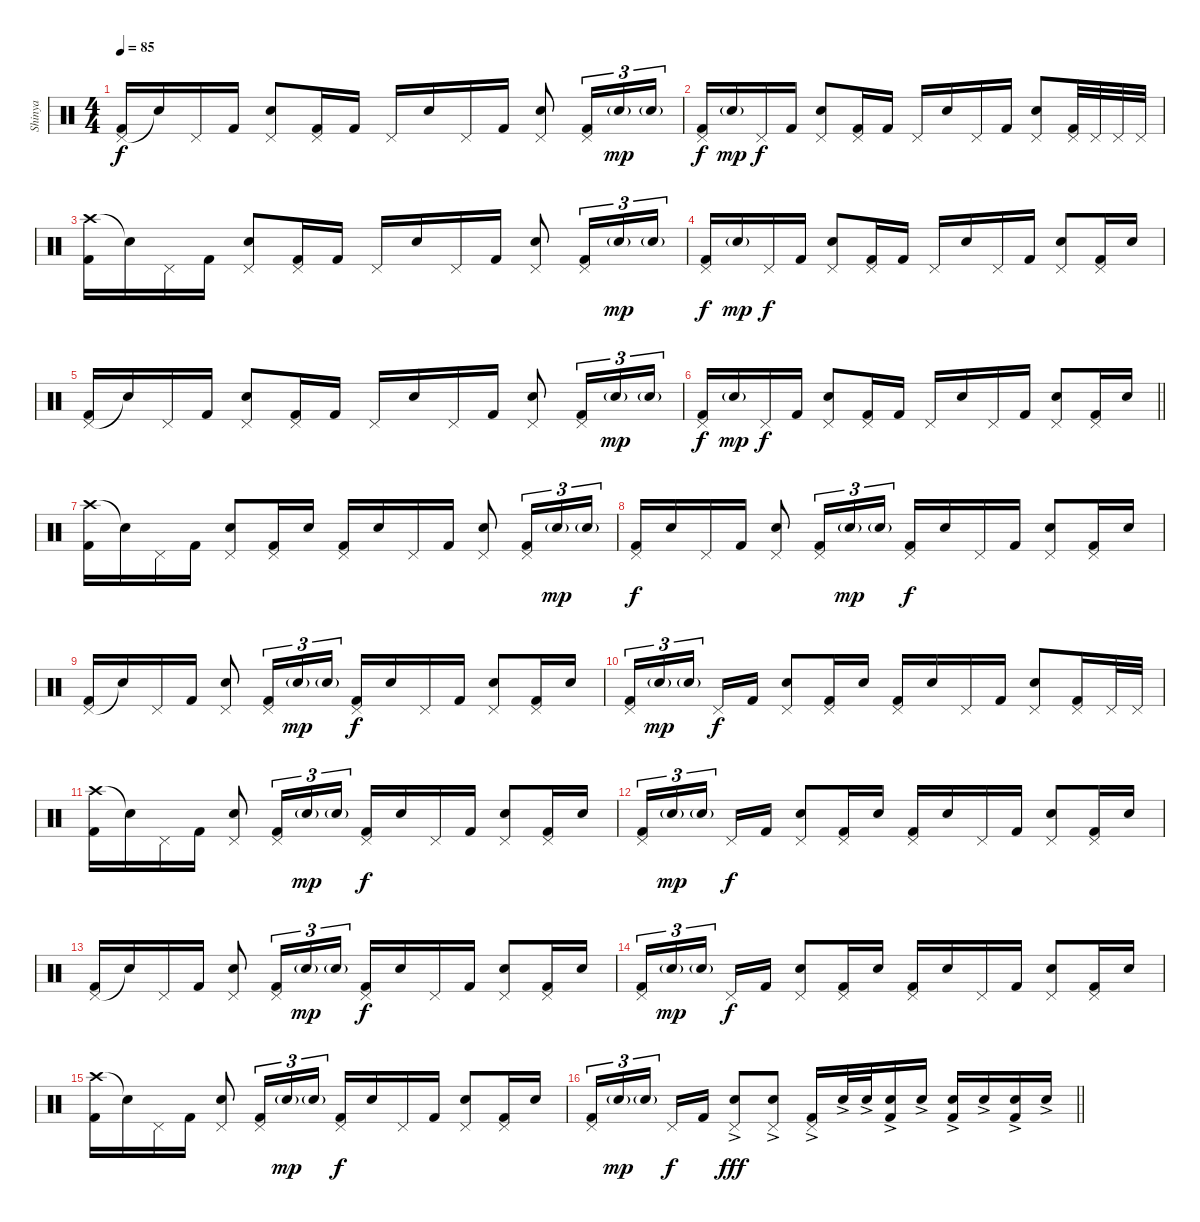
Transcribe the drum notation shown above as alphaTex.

\track ("Shinya" "Shinya") {instrument percussion}
\staff {score}
\articulation defaults
\ts (4 4)
\tempo 85
\clef neutral
\ks c
("Pedal Hi-Hat (hit)" "Kick (hit) 2").16{dy f} "Snare (hit)"{t}.16 "Pedal Hi-Hat (hit)".16 "Kick (hit) 2".16 ("Pedal Hi-Hat (hit)" "Electric Snare (hit)").8 ("Pedal Hi-Hat (hit)" "Kick (hit) 2").16 "Kick (hit) 2".16 "Pedal Hi-Hat (hit)".16 "Electric Snare (hit)".16 "Pedal Hi-Hat (hit)".16 "Kick (hit) 2".16 ("Pedal Hi-Hat (hit)" "Electric Snare (hit)").8 ("Pedal Hi-Hat (hit)" "Kick (hit) 2").16{tu (3 2)} "Electric Snare (hit)"{g}.16{tu (3 2) dy mp} "Electric Snare (hit)"{g}.16{tu (3 2)} |
("Pedal Hi-Hat (hit)" "Kick (hit) 2").16{dy f} "Electric Snare (hit)"{g}.16{dy mp} "Pedal Hi-Hat (hit)".16{dy f} "Kick (hit) 2".16 ("Pedal Hi-Hat (hit)" "Electric Snare (hit)").8 ("Pedal Hi-Hat (hit)" "Kick (hit) 2").16 "Kick (hit) 2".16 "Pedal Hi-Hat (hit)".16 "Electric Snare (hit)".16 "Pedal Hi-Hat (hit)".16 "Kick (hit) 2".16 ("Pedal Hi-Hat (hit)" "Electric Snare (hit)").8 ("Pedal Hi-Hat (hit)" "Kick (hit) 2").32 "Pedal Hi-Hat (hit)".32 "Pedal Hi-Hat (hit)".32 "Pedal Hi-Hat (hit)".32 |
("Crash high (hit)" "Kick (hit) 2").16 "Snare (hit)"{t}.16 "Pedal Hi-Hat (hit)".16 "Kick (hit) 2".16 ("Pedal Hi-Hat (hit)" "Electric Snare (hit)").8 ("Pedal Hi-Hat (hit)" "Kick (hit) 2").16 "Kick (hit) 2".16 "Pedal Hi-Hat (hit)".16 "Electric Snare (hit)".16 "Pedal Hi-Hat (hit)".16 "Kick (hit) 2".16 ("Pedal Hi-Hat (hit)" "Electric Snare (hit)").8 ("Pedal Hi-Hat (hit)" "Kick (hit) 2").16{tu (3 2)} "Electric Snare (hit)"{g}.16{tu (3 2) dy mp} "Electric Snare (hit)"{g}.16{tu (3 2)} |
("Pedal Hi-Hat (hit)" "Kick (hit) 2").16{dy f} "Electric Snare (hit)"{g}.16{dy mp} "Pedal Hi-Hat (hit)".16{dy f} "Kick (hit) 2".16 ("Pedal Hi-Hat (hit)" "Electric Snare (hit)").8 ("Pedal Hi-Hat (hit)" "Kick (hit) 2").16 "Kick (hit) 2".16 "Pedal Hi-Hat (hit)".16 "Electric Snare (hit)".16 "Pedal Hi-Hat (hit)".16 "Kick (hit) 2".16 ("Pedal Hi-Hat (hit)" "Electric Snare (hit)").8 ("Pedal Hi-Hat (hit)" "Kick (hit) 2").16 "Electric Snare (hit)".16 |
("Pedal Hi-Hat (hit)" "Kick (hit) 2").16 "Snare (hit)"{t}.16 "Pedal Hi-Hat (hit)".16 "Kick (hit) 2".16 ("Pedal Hi-Hat (hit)" "Electric Snare (hit)").8 ("Pedal Hi-Hat (hit)" "Kick (hit) 2").16 "Kick (hit) 2".16 "Pedal Hi-Hat (hit)".16 "Electric Snare (hit)".16 "Pedal Hi-Hat (hit)".16 "Kick (hit) 2".16 ("Pedal Hi-Hat (hit)" "Electric Snare (hit)").8 ("Pedal Hi-Hat (hit)" "Kick (hit) 2").16{tu (3 2)} "Electric Snare (hit)"{g}.16{tu (3 2) dy mp} "Electric Snare (hit)"{g}.16{tu (3 2)} |
\barLineRight lightlight
("Pedal Hi-Hat (hit)" "Kick (hit) 2").16{dy f} "Electric Snare (hit)"{g}.16{dy mp} "Pedal Hi-Hat (hit)".16{dy f} "Kick (hit) 2".16 ("Pedal Hi-Hat (hit)" "Electric Snare (hit)").8 ("Pedal Hi-Hat (hit)" "Kick (hit) 2").16 "Kick (hit) 2".16 "Pedal Hi-Hat (hit)".16 "Electric Snare (hit)".16 "Pedal Hi-Hat (hit)".16 "Kick (hit) 2".16 ("Pedal Hi-Hat (hit)" "Electric Snare (hit)").8 ("Pedal Hi-Hat (hit)" "Kick (hit) 2").16 "Electric Snare (hit)".16 |
("Crash high (hit)" "Kick (hit) 2").16 "Snare (hit)"{t}.16 "Pedal Hi-Hat (hit)".16 "Kick (hit) 2".16 ("Pedal Hi-Hat (hit)" "Electric Snare (hit)").8 ("Pedal Hi-Hat (hit)" "Kick (hit) 2").16 "Electric Snare (hit)".16 ("Pedal Hi-Hat (hit)" "Kick (hit) 2").16 "Electric Snare (hit)".16 "Pedal Hi-Hat (hit)".16 "Kick (hit) 2".16 ("Pedal Hi-Hat (hit)" "Electric Snare (hit)").8 ("Pedal Hi-Hat (hit)" "Kick (hit) 2").16{tu (3 2)} "Electric Snare (hit)"{g}.16{tu (3 2) dy mp} "Electric Snare (hit)"{g}.16{tu (3 2)} |
("Pedal Hi-Hat (hit)" "Kick (hit) 2").16{dy f} "Electric Snare (hit)".16 "Pedal Hi-Hat (hit)".16 "Kick (hit) 2".16 ("Pedal Hi-Hat (hit)" "Electric Snare (hit)").8 ("Pedal Hi-Hat (hit)" "Kick (hit) 2").16{tu (3 2)} "Electric Snare (hit)"{g}.16{tu (3 2) dy mp} "Electric Snare (hit)"{g}.16{tu (3 2)} ("Pedal Hi-Hat (hit)" "Kick (hit) 2").16{dy f} "Electric Snare (hit)".16 "Pedal Hi-Hat (hit)".16 "Kick (hit) 2".16 ("Pedal Hi-Hat (hit)" "Electric Snare (hit)").8 ("Pedal Hi-Hat (hit)" "Kick (hit) 2").16 "Electric Snare (hit)".16 |
("Pedal Hi-Hat (hit)" "Kick (hit) 2").16 "Snare (hit)"{t}.16 "Pedal Hi-Hat (hit)".16 "Kick (hit) 2".16 ("Pedal Hi-Hat (hit)" "Electric Snare (hit)").8 ("Pedal Hi-Hat (hit)" "Kick (hit) 2").16{tu (3 2)} "Electric Snare (hit)"{g}.16{tu (3 2) dy mp} "Electric Snare (hit)"{g}.16{tu (3 2)} ("Pedal Hi-Hat (hit)" "Kick (hit) 2").16{dy f} "Electric Snare (hit)".16 "Pedal Hi-Hat (hit)".16 "Kick (hit) 2".16 ("Pedal Hi-Hat (hit)" "Electric Snare (hit)").8 ("Pedal Hi-Hat (hit)" "Kick (hit) 2").16 "Electric Snare (hit)".16 |
("Pedal Hi-Hat (hit)" "Kick (hit) 2").16{tu (3 2)} "Electric Snare (hit)"{g}.16{tu (3 2) dy mp} "Electric Snare (hit)"{g}.16{tu (3 2)} "Pedal Hi-Hat (hit)".16{dy f} "Kick (hit) 2".16 ("Pedal Hi-Hat (hit)" "Electric Snare (hit)").8 ("Pedal Hi-Hat (hit)" "Kick (hit) 2").16 "Electric Snare (hit)".16 ("Pedal Hi-Hat (hit)" "Kick (hit) 2").16 "Electric Snare (hit)".16 "Pedal Hi-Hat (hit)".16 "Kick (hit) 2".16 ("Pedal Hi-Hat (hit)" "Electric Snare (hit)").8 ("Pedal Hi-Hat (hit)" "Kick (hit) 2").16 "Pedal Hi-Hat (hit)".32 "Pedal Hi-Hat (hit)".32 |
("Crash high (hit)" "Kick (hit) 2").16 "Snare (hit)"{t}.16 "Pedal Hi-Hat (hit)".16 "Kick (hit) 2".16 ("Pedal Hi-Hat (hit)" "Electric Snare (hit)").8 ("Pedal Hi-Hat (hit)" "Kick (hit) 2").16{tu (3 2)} "Electric Snare (hit)"{g}.16{tu (3 2) dy mp} "Electric Snare (hit)"{g}.16{tu (3 2)} ("Pedal Hi-Hat (hit)" "Kick (hit) 2").16{dy f} "Electric Snare (hit)".16 "Pedal Hi-Hat (hit)".16 "Kick (hit) 2".16 ("Pedal Hi-Hat (hit)" "Electric Snare (hit)").8 ("Pedal Hi-Hat (hit)" "Kick (hit) 2").16 "Electric Snare (hit)".16 |
("Pedal Hi-Hat (hit)" "Kick (hit) 2").16{tu (3 2)} "Electric Snare (hit)"{g}.16{tu (3 2) dy mp} "Electric Snare (hit)"{g}.16{tu (3 2)} "Pedal Hi-Hat (hit)".16{dy f} "Kick (hit) 2".16 ("Pedal Hi-Hat (hit)" "Electric Snare (hit)").8 ("Pedal Hi-Hat (hit)" "Kick (hit) 2").16 "Electric Snare (hit)".16 ("Pedal Hi-Hat (hit)" "Kick (hit) 2").16 "Electric Snare (hit)".16 "Pedal Hi-Hat (hit)".16 "Kick (hit) 2".16 ("Pedal Hi-Hat (hit)" "Electric Snare (hit)").8 ("Pedal Hi-Hat (hit)" "Kick (hit) 2").16 "Electric Snare (hit)".16 |
("Pedal Hi-Hat (hit)" "Kick (hit) 2").16 "Snare (hit)"{t}.16 "Pedal Hi-Hat (hit)".16 "Kick (hit) 2".16 ("Pedal Hi-Hat (hit)" "Electric Snare (hit)").8 ("Pedal Hi-Hat (hit)" "Kick (hit) 2").16{tu (3 2)} "Electric Snare (hit)"{g}.16{tu (3 2) dy mp} "Electric Snare (hit)"{g}.16{tu (3 2)} ("Pedal Hi-Hat (hit)" "Kick (hit) 2").16{dy f} "Electric Snare (hit)".16 "Pedal Hi-Hat (hit)".16 "Kick (hit) 2".16 ("Pedal Hi-Hat (hit)" "Electric Snare (hit)").8 ("Pedal Hi-Hat (hit)" "Kick (hit) 2").16 "Electric Snare (hit)".16 |
("Pedal Hi-Hat (hit)" "Kick (hit) 2").16{tu (3 2)} "Electric Snare (hit)"{g}.16{tu (3 2) dy mp} "Electric Snare (hit)"{g}.16{tu (3 2)} "Pedal Hi-Hat (hit)".16{dy f} "Kick (hit) 2".16 ("Pedal Hi-Hat (hit)" "Electric Snare (hit)").8 ("Pedal Hi-Hat (hit)" "Kick (hit) 2").16 "Electric Snare (hit)".16 ("Pedal Hi-Hat (hit)" "Kick (hit) 2").16 "Electric Snare (hit)".16 "Pedal Hi-Hat (hit)".16 "Kick (hit) 2".16 ("Pedal Hi-Hat (hit)" "Electric Snare (hit)").8 ("Pedal Hi-Hat (hit)" "Kick (hit) 2").16 "Electric Snare (hit)".16 |
("Crash high (hit)" "Kick (hit) 2").16 "Snare (hit)"{t}.16 "Pedal Hi-Hat (hit)".16 "Kick (hit) 2".16 ("Pedal Hi-Hat (hit)" "Electric Snare (hit)").8 ("Pedal Hi-Hat (hit)" "Kick (hit) 2").16{tu (3 2)} "Electric Snare (hit)"{g}.16{tu (3 2) dy mp} "Electric Snare (hit)"{g}.16{tu (3 2)} ("Pedal Hi-Hat (hit)" "Kick (hit) 2").16{dy f} "Electric Snare (hit)".16 "Pedal Hi-Hat (hit)".16 "Kick (hit) 2".16 ("Pedal Hi-Hat (hit)" "Electric Snare (hit)").8 ("Pedal Hi-Hat (hit)" "Kick (hit) 2").16 "Electric Snare (hit)".16 |
\barLineRight lightlight
("Pedal Hi-Hat (hit)" "Kick (hit) 2").16{tu (3 2)} "Electric Snare (hit)"{g}.16{tu (3 2) dy mp} "Electric Snare (hit)"{g}.16{tu (3 2)} "Pedal Hi-Hat (hit)".16{dy f} "Kick (hit) 2".16 ("Pedal Hi-Hat (hit)"{ac} "Electric Snare (hit)"{ac}).8{dy fff} ("Pedal Hi-Hat (hit)"{ac} "Electric Snare (hit)"{ac}).8 ("Pedal Hi-Hat (hit)"{ac} "Kick (hit) 2"{ac}).16 "Electric Snare (hit)"{ac}.32 "Electric Snare (hit)"{ac}.32 ("Electric Snare (hit)"{ac} "Kick (hit) 2"{ac}).16 "Electric Snare (hit)"{ac}.16 ("Electric Snare (hit)"{ac} "Kick (hit) 2"{ac}).16 "Electric Snare (hit)"{ac}.16 ("Electric Snare (hit)"{ac} "Kick (hit) 2"{ac}).16 "Electric Snare (hit)"{ac}.16
